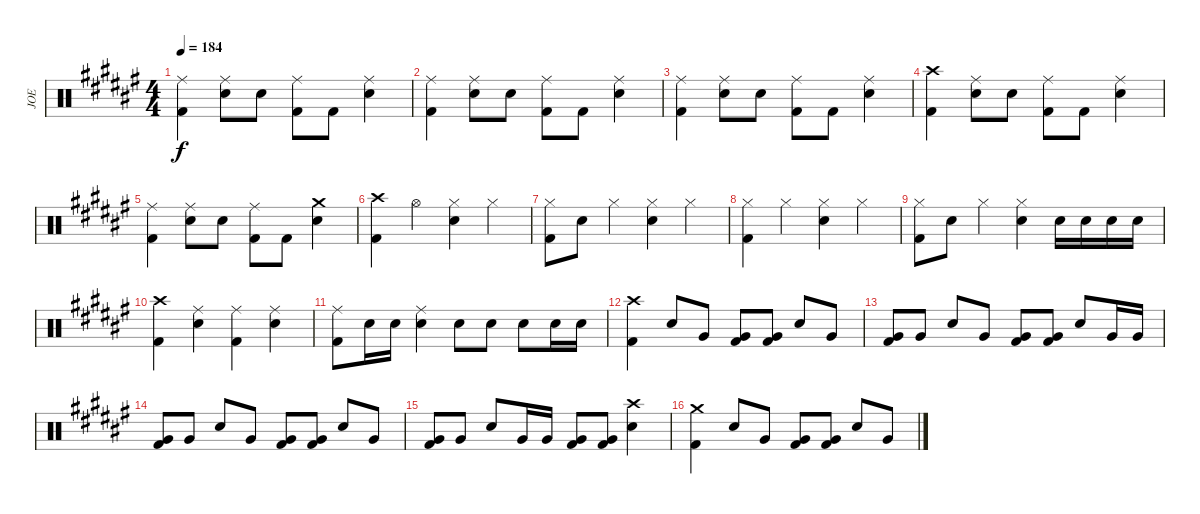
\track ("JOE" "JOE") {instrument percussion}
\staff {score}
\articulation defaults
\ts (4 4)
\tempo 184
\clef neutral
\ks f#
("Ride (middle)" "Kick (hit) 2").4{dy f} ("Ride (middle)" "Snare (hit) 2").8 "Snare (hit) 2".8 ("Ride (middle)" "Kick (hit) 2").8 "Kick (hit) 2".8 ("Ride (middle)" "Snare (hit) 2").4 |
("Ride (middle)" "Kick (hit) 2").4 ("Ride (middle)" "Snare (hit) 2").8 "Snare (hit) 2".8 ("Ride (middle)" "Kick (hit) 2").8 "Kick (hit) 2".8 ("Ride (middle)" "Snare (hit) 2").4 |
("Ride (middle)" "Kick (hit) 2").4 ("Ride (middle)" "Snare (hit) 2").8 "Snare (hit) 2".8 ("Ride (middle)" "Kick (hit) 2").8 "Kick (hit) 2".8 ("Ride (middle)" "Snare (hit) 2").4 |
("Crash high (hit)" "Kick (hit) 2").4 ("Ride (middle)" "Snare (hit) 2").8 "Snare (hit) 2".8 ("Ride (middle)" "Kick (hit) 2").8 "Kick (hit) 2".8 ("Ride (middle)" "Snare (hit) 2").4 |
("Ride (middle)" "Kick (hit) 2").4 ("Ride (middle)" "Snare (hit) 2").8 "Snare (hit) 2".8 ("Ride (middle)" "Kick (hit) 2").8 "Kick (hit) 2".8 ("Crash medium (hit)" "Snare (hit) 2").4 |
("Crash high (hit)" "Kick (hit) 2").4 "Hi-Hat (open)".4 ("Hi-Hat (closed)" "Snare (hit) 2").4 "Hi-Hat (closed)".4 |
("Hi-Hat (closed)" "Kick (hit) 2").8 "Snare (hit) 2".8 "Hi-Hat (closed)".4 ("Hi-Hat (closed)" "Snare (hit) 2").4 "Hi-Hat (closed)".4 |
("Hi-Hat (closed)" "Kick (hit) 2").4 "Hi-Hat (closed)".4 ("Hi-Hat (closed)" "Snare (hit) 2").4 "Hi-Hat (closed)".4 |
("Hi-Hat (closed)" "Kick (hit) 2").8 "Snare (hit) 2".8 "Hi-Hat (closed)".4 ("Hi-Hat (closed)" "Snare (hit) 2").4 "Snare (hit) 2".16 "Snare (hit) 2".16 "Snare (hit) 2".16 "Snare (hit) 2".16 |
("Crash high (hit)" "Kick (hit) 2").4 ("Ride (middle)" "Snare (hit) 2").4 ("Ride (middle)" "Kick (hit) 2").4 ("Ride (middle)" "Snare (hit) 2").4 |
("Ride (middle)" "Kick (hit) 2").8 "Snare (hit) 2".16 "Snare (hit) 2".16 ("Ride (middle)" "Snare (hit) 2").4 "Snare (hit) 2".8 "Snare (hit) 2".8 "Snare (hit) 2".8 "Snare (hit) 2".16 "Snare (hit) 2".16 |
("Crash high (hit)" "Kick (hit) 2").4 "Snare (hit) 2".8 "Very Low Tom (hit)".8 ("Very Low Tom (hit)" "Kick (hit) 2").8 ("Very Low Tom (hit)" "Kick (hit) 2").8 "Snare (hit) 2".8 "Very Low Tom (hit)".8 |
("Very Low Tom (hit)" "Kick (hit) 2").8 "Very Low Tom (hit)".8 "Snare (hit) 2".8 "Very Low Tom (hit)".8 ("Very Low Tom (hit)" "Kick (hit) 2").8 ("Very Low Tom (hit)" "Kick (hit) 2").8 "Snare (hit) 2".8 "Very Low Tom (hit)".16 "Very Low Tom (hit)".16 |
("Very Low Tom (hit)" "Kick (hit) 2").8 "Very Low Tom (hit)".8 "Snare (hit) 2".8 "Very Low Tom (hit)".8 ("Very Low Tom (hit)" "Kick (hit) 2").8 ("Very Low Tom (hit)" "Kick (hit) 2").8 "Snare (hit) 2".8 "Very Low Tom (hit)".8 |
("Very Low Tom (hit)" "Kick (hit) 2").8 "Very Low Tom (hit)".8 "Snare (hit) 2".8 "Very Low Tom (hit)".16 "Very Low Tom (hit)".16 ("Very Low Tom (hit)" "Kick (hit) 2").8 ("Very Low Tom (hit)" "Kick (hit) 2").8 ("Crash high (hit)" "Snare (hit) 2").4 |
("Crash medium (hit)" "Kick (hit) 2").4 "Snare (hit) 2".8 "Very Low Tom (hit)".8 ("Very Low Tom (hit)" "Kick (hit) 2").8 ("Very Low Tom (hit)" "Kick (hit) 2").8 "Snare (hit) 2".8 "Very Low Tom (hit)".8
